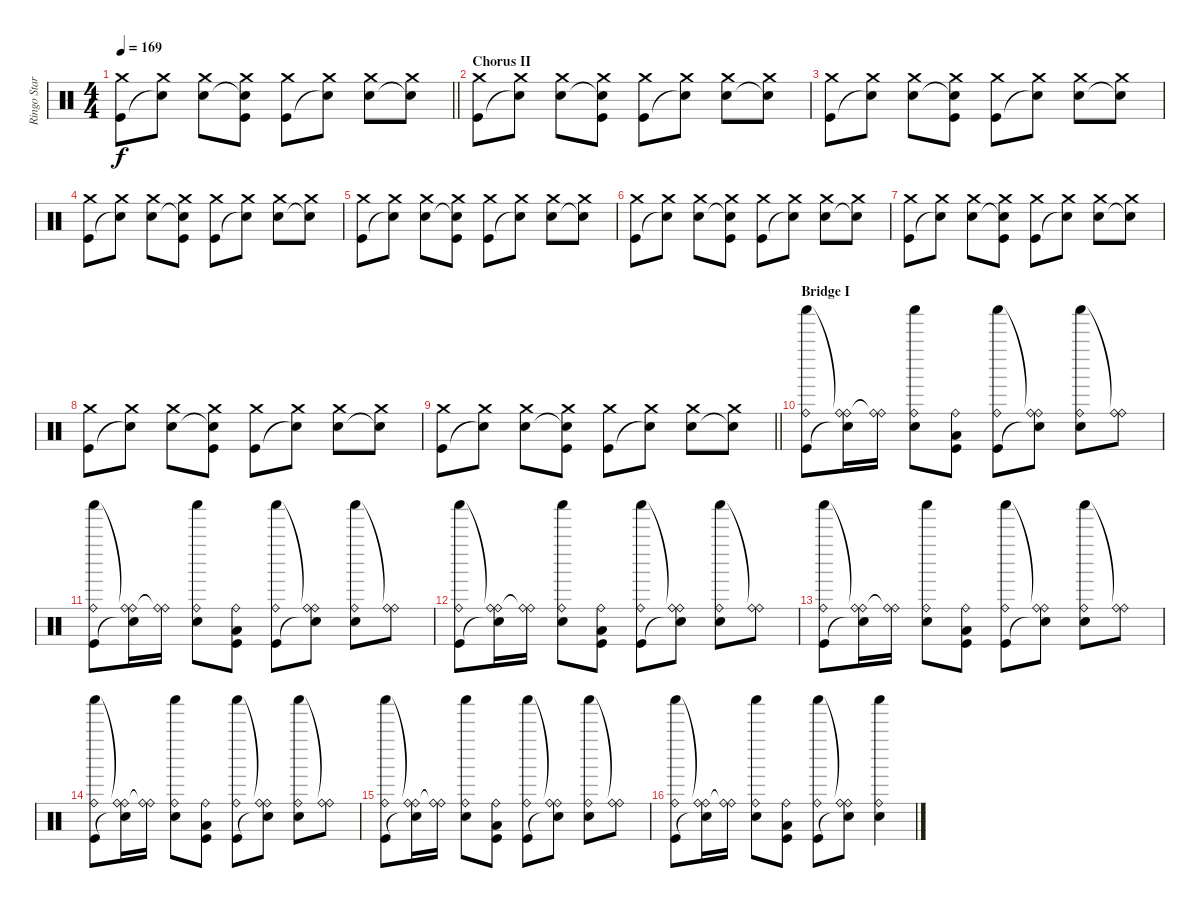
\track ("Ringo Starr" "Ringo Star") {instrument percussion}
\staff {score}
\articulation defaults
\ts (4 4)
\tempo 169
\clef neutral
\barLineRight lightlight
\ks c
("Crash medium (hit)" "Kick (hit)").8{dy f} ("Crash medium (hit)" "Snare (hit)"{t}).8 ("Crash medium (hit)" "Snare (hit) 2").8 ("Crash medium (hit)" "Snare (hit)"{t} "Kick (hit)").8 ("Crash medium (hit)" "Kick (hit)").8 ("Crash medium (hit)" "Snare (hit)"{t}).8 ("Crash medium (hit)" "Snare (hit) 2").8 ("Crash medium (hit)" "Snare (hit)"{t}).8 |
\section ("" "Chorus II")
("Crash medium (hit)" "Kick (hit)").8 ("Crash medium (hit)" "Snare (hit)"{t}).8 ("Crash medium (hit)" "Snare (hit) 2").8 ("Crash medium (hit)" "Snare (hit)"{t} "Kick (hit)").8 ("Crash medium (hit)" "Kick (hit)").8 ("Crash medium (hit)" "Snare (hit)"{t}).8 ("Crash medium (hit)" "Snare (hit) 2").8 ("Crash medium (hit)" "Snare (hit)"{t}).8 |
("Crash medium (hit)" "Kick (hit)").8 ("Crash medium (hit)" "Snare (hit)"{t}).8 ("Crash medium (hit)" "Snare (hit) 2").8 ("Crash medium (hit)" "Snare (hit)"{t} "Kick (hit)").8 ("Crash medium (hit)" "Kick (hit)").8 ("Crash medium (hit)" "Snare (hit)"{t}).8 ("Crash medium (hit)" "Snare (hit) 2").8 ("Crash medium (hit)" "Snare (hit)"{t}).8 |
("Crash medium (hit)" "Kick (hit)").8 ("Crash medium (hit)" "Snare (hit)"{t}).8 ("Crash medium (hit)" "Snare (hit) 2").8 ("Crash medium (hit)" "Snare (hit)"{t} "Kick (hit)").8 ("Crash medium (hit)" "Kick (hit)").8 ("Crash medium (hit)" "Snare (hit)"{t}).8 ("Crash medium (hit)" "Snare (hit) 2").8 ("Crash medium (hit)" "Snare (hit)"{t}).8 |
("Crash medium (hit)" "Kick (hit)").8 ("Crash medium (hit)" "Snare (hit)"{t}).8 ("Crash medium (hit)" "Snare (hit) 2").8 ("Crash medium (hit)" "Snare (hit)"{t} "Kick (hit)").8 ("Crash medium (hit)" "Kick (hit)").8 ("Crash medium (hit)" "Snare (hit)"{t}).8 ("Crash medium (hit)" "Snare (hit) 2").8 ("Crash medium (hit)" "Snare (hit)"{t}).8 |
("Crash medium (hit)" "Kick (hit)").8 ("Crash medium (hit)" "Snare (hit)"{t}).8 ("Crash medium (hit)" "Snare (hit) 2").8 ("Crash medium (hit)" "Snare (hit)"{t} "Kick (hit)").8 ("Crash medium (hit)" "Kick (hit)").8 ("Crash medium (hit)" "Snare (hit)"{t}).8 ("Crash medium (hit)" "Snare (hit) 2").8 ("Crash medium (hit)" "Snare (hit)"{t}).8 |
("Crash medium (hit)" "Kick (hit)").8 ("Crash medium (hit)" "Snare (hit)"{t}).8 ("Crash medium (hit)" "Snare (hit) 2").8 ("Crash medium (hit)" "Snare (hit)"{t} "Kick (hit)").8 ("Crash medium (hit)" "Kick (hit)").8 ("Crash medium (hit)" "Snare (hit)"{t}).8 ("Crash medium (hit)" "Snare (hit) 2").8 ("Crash medium (hit)" "Snare (hit)"{t}).8 |
("Crash medium (hit)" "Kick (hit)").8 ("Crash medium (hit)" "Snare (hit)"{t}).8 ("Crash medium (hit)" "Snare (hit) 2").8 ("Crash medium (hit)" "Snare (hit)"{t} "Kick (hit)").8 ("Crash medium (hit)" "Kick (hit)").8 ("Crash medium (hit)" "Snare (hit)"{t}).8 ("Crash medium (hit)" "Snare (hit) 2").8 ("Crash medium (hit)" "Snare (hit)"{t}).8 |
\barLineRight lightlight
("Crash medium (hit)" "Kick (hit)").8 ("Crash medium (hit)" "Snare (hit)"{t}).8 ("Crash medium (hit)" "Snare (hit) 2").8 ("Crash medium (hit)" "Snare (hit)"{t} "Kick (hit)").8 ("Crash medium (hit)" "Kick (hit)").8 ("Crash medium (hit)" "Snare (hit)"{t}).8 ("Crash medium (hit)" "Snare (hit) 2").8 ("Crash medium (hit)" "Snare (hit)"{t}).8 |
\section ("" "Bridge I")
("Shaker (hit)" "Ride (bell)" "Kick (hit)").8 ("Ride (bell)"{t} "Ride (bell)" "Snare (hit)"{t}).16 ("Ride (bell)"{t} "Ride (bell)").16 ("Shaker (hit)" "Ride (bell)" "Snare (hit) 2").8 ("Ride (bell)" "Low Floor Tom (hit)" "Kick (hit)").8 ("Shaker (hit)" "Ride (bell)" "Kick (hit)").8 ("Ride (bell)"{t} "Ride (bell)" "Snare (hit)"{t}).8 ("Shaker (hit)" "Ride (bell)" "Snare (hit) 2").8 ("Ride (bell)"{t} "Ride (bell)").8 |
("Shaker (hit)" "Ride (bell)" "Kick (hit)").8 ("Ride (bell)"{t} "Ride (bell)" "Snare (hit)"{t}).16 ("Ride (bell)"{t} "Ride (bell)").16 ("Shaker (hit)" "Ride (bell)" "Snare (hit) 2").8 ("Ride (bell)" "Low Floor Tom (hit)" "Kick (hit)").8 ("Shaker (hit)" "Ride (bell)" "Kick (hit)").8 ("Ride (bell)"{t} "Ride (bell)" "Snare (hit)"{t}).8 ("Shaker (hit)" "Ride (bell)" "Snare (hit) 2").8 ("Ride (bell)"{t} "Ride (bell)").8 |
("Shaker (hit)" "Ride (bell)" "Kick (hit)").8 ("Ride (bell)"{t} "Ride (bell)" "Snare (hit)"{t}).16 ("Ride (bell)"{t} "Ride (bell)").16 ("Shaker (hit)" "Ride (bell)" "Snare (hit) 2").8 ("Ride (bell)" "Low Floor Tom (hit)" "Kick (hit)").8 ("Shaker (hit)" "Ride (bell)" "Kick (hit)").8 ("Ride (bell)"{t} "Ride (bell)" "Snare (hit)"{t}).8 ("Shaker (hit)" "Ride (bell)" "Snare (hit) 2").8 ("Ride (bell)"{t} "Ride (bell)").8 |
("Shaker (hit)" "Ride (bell)" "Kick (hit)").8 ("Ride (bell)"{t} "Ride (bell)" "Snare (hit)"{t}).16 ("Ride (bell)"{t} "Ride (bell)").16 ("Shaker (hit)" "Ride (bell)" "Snare (hit) 2").8 ("Ride (bell)" "Low Floor Tom (hit)" "Kick (hit)").8 ("Shaker (hit)" "Ride (bell)" "Kick (hit)").8 ("Ride (bell)"{t} "Ride (bell)" "Snare (hit)"{t}).8 ("Shaker (hit)" "Ride (bell)" "Snare (hit) 2").8 ("Ride (bell)"{t} "Ride (bell)").8 |
("Shaker (hit)" "Ride (bell)" "Kick (hit)").8 ("Ride (bell)"{t} "Ride (bell)" "Snare (hit)"{t}).16 ("Ride (bell)"{t} "Ride (bell)").16 ("Shaker (hit)" "Ride (bell)" "Snare (hit) 2").8 ("Ride (bell)" "Low Floor Tom (hit)" "Kick (hit)").8 ("Shaker (hit)" "Ride (bell)" "Kick (hit)").8 ("Ride (bell)"{t} "Ride (bell)" "Snare (hit)"{t}).8 ("Shaker (hit)" "Ride (bell)" "Snare (hit) 2").8 ("Ride (bell)"{t} "Ride (bell)").8 |
("Shaker (hit)" "Ride (bell)" "Kick (hit)").8 ("Ride (bell)"{t} "Ride (bell)" "Snare (hit)"{t}).16 ("Ride (bell)"{t} "Ride (bell)").16 ("Shaker (hit)" "Ride (bell)" "Snare (hit) 2").8 ("Ride (bell)" "Low Floor Tom (hit)" "Kick (hit)").8 ("Shaker (hit)" "Ride (bell)" "Kick (hit)").8 ("Ride (bell)"{t} "Ride (bell)" "Snare (hit)"{t}).8 ("Shaker (hit)" "Ride (bell)" "Snare (hit) 2").8 ("Ride (bell)"{t} "Ride (bell)").8 |
("Shaker (hit)" "Ride (bell)" "Kick (hit)").8 ("Ride (bell)"{t} "Ride (bell)" "Snare (hit)"{t}).16 ("Ride (bell)"{t} "Ride (bell)").16 ("Shaker (hit)" "Ride (bell)" "Snare (hit) 2").8 ("Ride (bell)" "Low Floor Tom (hit)" "Kick (hit)").8 ("Shaker (hit)" "Ride (bell)" "Kick (hit)").8 ("Ride (bell)"{t} "Ride (bell)" "Snare (hit)"{t}).8 ("Shaker (hit)" "Ride (bell)" "Snare (hit) 2").4
